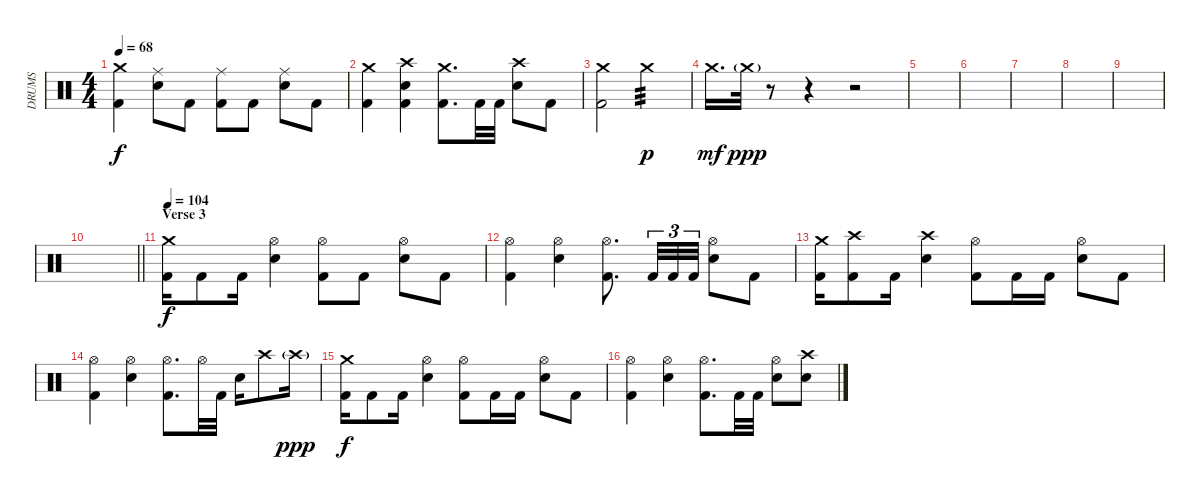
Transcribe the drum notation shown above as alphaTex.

\track ("DRUMS" "DRUMS") {instrument percussion}
\staff {score}
\articulation defaults
\ts (4 4)
\tempo 68
\clef neutral
\ks c
("Crash medium (hit)" "Kick (hit) 2").4{dy f} ("Ride (middle)" "Snare (hit) 2").8 "Kick (hit) 2".8 ("Ride (middle)" "Kick (hit) 2").8 "Kick (hit) 2".8 ("Ride (middle)" "Snare (hit) 2").8 "Kick (hit) 2".8 |
("Crash medium (hit)" "Kick (hit) 2").4 ("Crash high (hit)" "Snare (hit) 2" "Kick (hit) 2").4 ("Crash medium (hit)" "Kick (hit) 2").8{d} "Kick (hit) 2".32 "Kick (hit) 2".32 ("Crash high (hit)" "Snare (hit) 2").8 "Kick (hit) 2".8 |
("Crash medium (hit)" "Kick (hit) 2").2 "Crash medium (hit)".2{tp 3 dy p} |
"Crash medium (hit)".16{d dy mf} "Crash medium (hit)"{g}.32{dy ppp} r.8 r.4 r.2 |
|
|
|
|
|
\barLineRight lightlight
|
\section ("" "Verse 3")
\tempo 104
("Crash medium (hit)" "Kick (hit) 2").16{dy f} "Kick (hit) 2".8 "Kick (hit) 2".16 ("Hi-Hat (open)" "Snare (hit) 2").4 ("Hi-Hat (open)" "Kick (hit) 2").8 "Kick (hit) 2".8 ("Hi-Hat (open)" "Snare (hit) 2").8 "Kick (hit) 2".8 |
("Hi-Hat (open)" "Kick (hit) 2").4 ("Hi-Hat (open)" "Snare (hit) 2").4 ("Hi-Hat (open)" "Kick (hit) 2").8{d} "Kick (hit) 2".32{tu (3 2)} "Kick (hit) 2".32{tu (3 2)} "Kick (hit) 2".32{tu (3 2)} ("Hi-Hat (open)" "Snare (hit) 2").8 "Kick (hit) 2".8 |
("Crash medium (hit)" "Kick (hit) 2").16 ("Crash high (hit)" "Kick (hit) 2").8 "Kick (hit) 2".16 ("Crash high (hit)" "Snare (hit) 2").4 ("Hi-Hat (open)" "Kick (hit) 2").8 "Kick (hit) 2".16 "Kick (hit) 2".16 ("Hi-Hat (open)" "Snare (hit) 2").8 "Kick (hit) 2".8 |
("Hi-Hat (open)" "Kick (hit) 2").4 ("Hi-Hat (open)" "Snare (hit) 2").4 ("Hi-Hat (open)" "Kick (hit) 2").8{d} "Hi-Hat (open)".32 "Kick (hit) 2".32 "Snare (hit) 2".16 "Crash high (hit)".8 "Crash high (hit)"{g}.16{dy ppp} |
("Crash medium (hit)" "Kick (hit) 2").16{dy f} "Kick (hit) 2".8 "Kick (hit) 2".16 ("Hi-Hat (open)" "Snare (hit) 2").4 ("Hi-Hat (open)" "Kick (hit) 2").8 "Kick (hit) 2".16 "Kick (hit) 2".16 ("Hi-Hat (open)" "Snare (hit) 2").8 "Kick (hit) 2".8 |
("Hi-Hat (open)" "Kick (hit) 2").4 ("Hi-Hat (open)" "Snare (hit) 2").4 ("Hi-Hat (open)" "Kick (hit) 2").8{d} "Kick (hit) 2".32 "Kick (hit) 2".32 ("Hi-Hat (open)" "Snare (hit) 2").8 ("Crash high (hit)" "Snare (hit) 2").8
